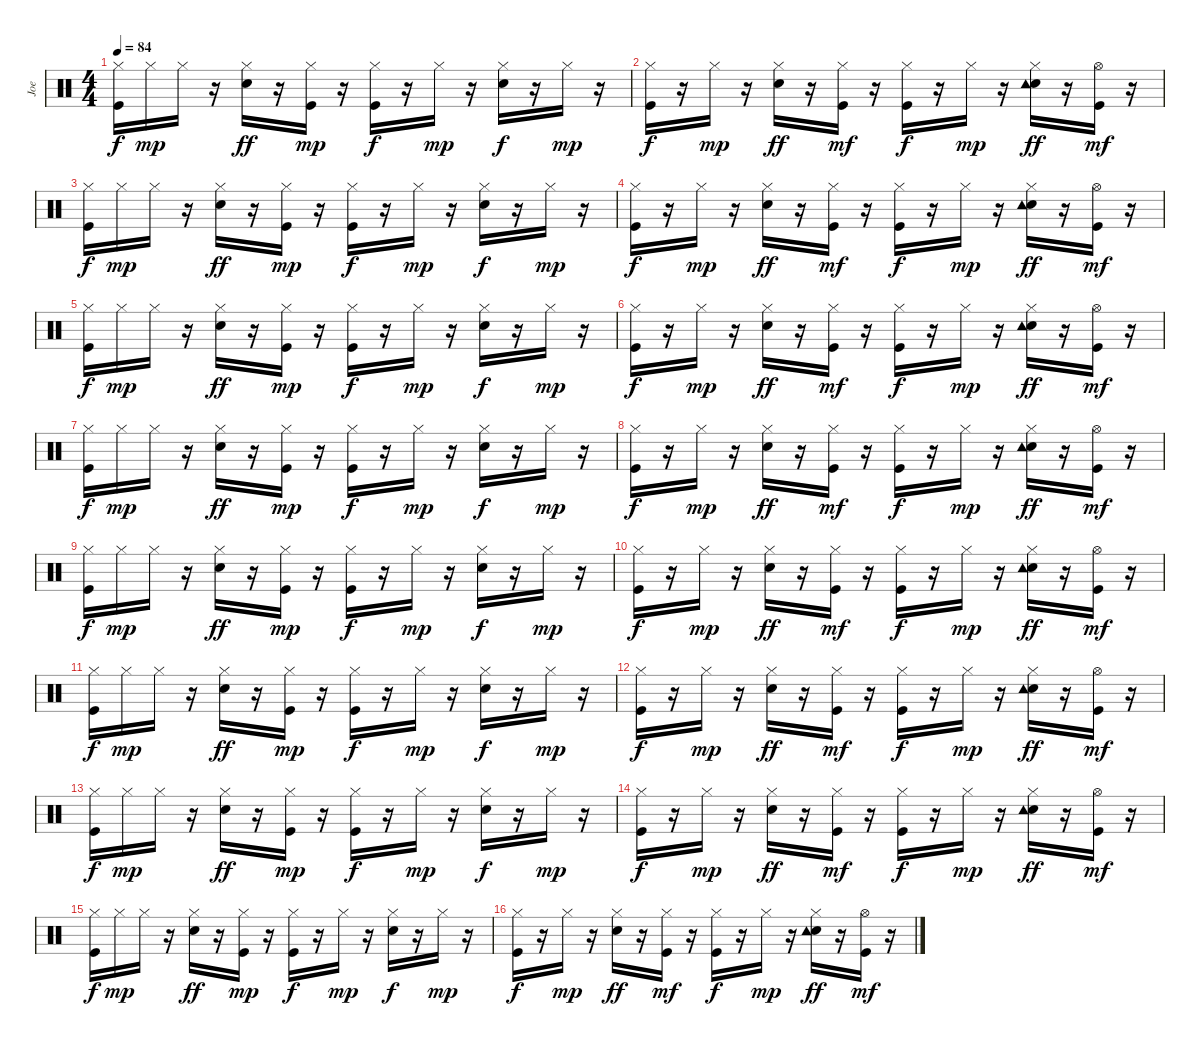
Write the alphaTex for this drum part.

\track ("Joe" "Joe") {instrument percussion}
\staff {score}
\articulation defaults
\ts (4 4)
\tempo 84
\clef neutral
\ks c
("Kick (hit)" "Hi-Hat (closed)").16{dy f} "Hi-Hat (closed)".16{dy mp} "Hi-Hat (closed)".16 r.16 ("Snare (hit) 2" "Hi-Hat (closed)").16{dy ff} r.16 ("Kick (hit)" "Hi-Hat (closed)").16{dy mp} r.16 ("Kick (hit)" "Hi-Hat (closed)").16{dy f} r.16 "Hi-Hat (closed)".16{dy mp} r.16 ("Snare (hit) 2" "Hi-Hat (closed)").16{dy f} r.16 "Hi-Hat (closed)".16{dy mp} r.16 |
("Kick (hit)" "Hi-Hat (closed)").16{dy f} r.16 "Hi-Hat (closed)".16{dy mp} r.16 ("Snare (hit) 2" "Hi-Hat (closed)").16{dy ff} r.16 ("Kick (hit)" "Hi-Hat (closed)").16{dy mf} r.16 ("Kick (hit)" "Hi-Hat (closed)").16{dy f} r.16 "Hi-Hat (closed)".16{dy mp} r.16 ("Snare (hit) 2" "Hi-Hat (closed)" "Tambourine (hit)").16{dy ff} r.16 ("Kick (hit)" "Hi-Hat (open)").16{dy mf} r.16 |
("Kick (hit)" "Hi-Hat (closed)").16{dy f} "Hi-Hat (closed)".16{dy mp} "Hi-Hat (closed)".16 r.16 ("Snare (hit) 2" "Hi-Hat (closed)").16{dy ff} r.16 ("Kick (hit)" "Hi-Hat (closed)").16{dy mp} r.16 ("Kick (hit)" "Hi-Hat (closed)").16{dy f} r.16 "Hi-Hat (closed)".16{dy mp} r.16 ("Snare (hit) 2" "Hi-Hat (closed)").16{dy f} r.16 "Hi-Hat (closed)".16{dy mp} r.16 |
("Kick (hit)" "Hi-Hat (closed)").16{dy f} r.16 "Hi-Hat (closed)".16{dy mp} r.16 ("Snare (hit) 2" "Hi-Hat (closed)").16{dy ff} r.16 ("Kick (hit)" "Hi-Hat (closed)").16{dy mf} r.16 ("Kick (hit)" "Hi-Hat (closed)").16{dy f} r.16 "Hi-Hat (closed)".16{dy mp} r.16 ("Snare (hit) 2" "Hi-Hat (closed)" "Tambourine (hit)").16{dy ff} r.16 ("Kick (hit)" "Hi-Hat (open)").16{dy mf} r.16 |
("Kick (hit)" "Hi-Hat (closed)").16{dy f} "Hi-Hat (closed)".16{dy mp} "Hi-Hat (closed)".16 r.16 ("Snare (hit) 2" "Hi-Hat (closed)").16{dy ff} r.16 ("Kick (hit)" "Hi-Hat (closed)").16{dy mp} r.16 ("Kick (hit)" "Hi-Hat (closed)").16{dy f} r.16 "Hi-Hat (closed)".16{dy mp} r.16 ("Snare (hit) 2" "Hi-Hat (closed)").16{dy f} r.16 "Hi-Hat (closed)".16{dy mp} r.16 |
("Kick (hit)" "Hi-Hat (closed)").16{dy f} r.16 "Hi-Hat (closed)".16{dy mp} r.16 ("Snare (hit) 2" "Hi-Hat (closed)").16{dy ff} r.16 ("Kick (hit)" "Hi-Hat (closed)").16{dy mf} r.16 ("Kick (hit)" "Hi-Hat (closed)").16{dy f} r.16 "Hi-Hat (closed)".16{dy mp} r.16 ("Snare (hit) 2" "Hi-Hat (closed)" "Tambourine (hit)").16{dy ff} r.16 ("Kick (hit)" "Hi-Hat (open)").16{dy mf} r.16 |
("Kick (hit)" "Hi-Hat (closed)").16{dy f} "Hi-Hat (closed)".16{dy mp} "Hi-Hat (closed)".16 r.16 ("Snare (hit) 2" "Hi-Hat (closed)").16{dy ff} r.16 ("Kick (hit)" "Hi-Hat (closed)").16{dy mp} r.16 ("Kick (hit)" "Hi-Hat (closed)").16{dy f} r.16 "Hi-Hat (closed)".16{dy mp} r.16 ("Snare (hit) 2" "Hi-Hat (closed)").16{dy f} r.16 "Hi-Hat (closed)".16{dy mp} r.16 |
("Kick (hit)" "Hi-Hat (closed)").16{dy f} r.16 "Hi-Hat (closed)".16{dy mp} r.16 ("Snare (hit) 2" "Hi-Hat (closed)").16{dy ff} r.16 ("Kick (hit)" "Hi-Hat (closed)").16{dy mf} r.16 ("Kick (hit)" "Hi-Hat (closed)").16{dy f} r.16 "Hi-Hat (closed)".16{dy mp} r.16 ("Snare (hit) 2" "Hi-Hat (closed)" "Tambourine (hit)").16{dy ff} r.16 ("Kick (hit)" "Hi-Hat (open)").16{dy mf} r.16 |
("Kick (hit)" "Hi-Hat (closed)").16{dy f} "Hi-Hat (closed)".16{dy mp} "Hi-Hat (closed)".16 r.16 ("Snare (hit) 2" "Hi-Hat (closed)").16{dy ff} r.16 ("Kick (hit)" "Hi-Hat (closed)").16{dy mp} r.16 ("Kick (hit)" "Hi-Hat (closed)").16{dy f} r.16 "Hi-Hat (closed)".16{dy mp} r.16 ("Snare (hit) 2" "Hi-Hat (closed)").16{dy f} r.16 "Hi-Hat (closed)".16{dy mp} r.16 |
("Kick (hit)" "Hi-Hat (closed)").16{dy f} r.16 "Hi-Hat (closed)".16{dy mp} r.16 ("Snare (hit) 2" "Hi-Hat (closed)").16{dy ff} r.16 ("Kick (hit)" "Hi-Hat (closed)").16{dy mf} r.16 ("Kick (hit)" "Hi-Hat (closed)").16{dy f} r.16 "Hi-Hat (closed)".16{dy mp} r.16 ("Snare (hit) 2" "Hi-Hat (closed)" "Tambourine (hit)").16{dy ff} r.16 ("Kick (hit)" "Hi-Hat (open)").16{dy mf} r.16 |
("Kick (hit)" "Hi-Hat (closed)").16{dy f} "Hi-Hat (closed)".16{dy mp} "Hi-Hat (closed)".16 r.16 ("Snare (hit) 2" "Hi-Hat (closed)").16{dy ff} r.16 ("Kick (hit)" "Hi-Hat (closed)").16{dy mp} r.16 ("Kick (hit)" "Hi-Hat (closed)").16{dy f} r.16 "Hi-Hat (closed)".16{dy mp} r.16 ("Snare (hit) 2" "Hi-Hat (closed)").16{dy f} r.16 "Hi-Hat (closed)".16{dy mp} r.16 |
("Kick (hit)" "Hi-Hat (closed)").16{dy f} r.16 "Hi-Hat (closed)".16{dy mp} r.16 ("Snare (hit) 2" "Hi-Hat (closed)").16{dy ff} r.16 ("Kick (hit)" "Hi-Hat (closed)").16{dy mf} r.16 ("Kick (hit)" "Hi-Hat (closed)").16{dy f} r.16 "Hi-Hat (closed)".16{dy mp} r.16 ("Snare (hit) 2" "Hi-Hat (closed)" "Tambourine (hit)").16{dy ff} r.16 ("Kick (hit)" "Hi-Hat (open)").16{dy mf} r.16 |
("Kick (hit)" "Hi-Hat (closed)").16{dy f} "Hi-Hat (closed)".16{dy mp} "Hi-Hat (closed)".16 r.16 ("Snare (hit) 2" "Hi-Hat (closed)").16{dy ff} r.16 ("Kick (hit)" "Hi-Hat (closed)").16{dy mp} r.16 ("Kick (hit)" "Hi-Hat (closed)").16{dy f} r.16 "Hi-Hat (closed)".16{dy mp} r.16 ("Snare (hit) 2" "Hi-Hat (closed)").16{dy f} r.16 "Hi-Hat (closed)".16{dy mp} r.16 |
("Kick (hit)" "Hi-Hat (closed)").16{dy f} r.16 "Hi-Hat (closed)".16{dy mp} r.16 ("Snare (hit) 2" "Hi-Hat (closed)").16{dy ff} r.16 ("Kick (hit)" "Hi-Hat (closed)").16{dy mf} r.16 ("Kick (hit)" "Hi-Hat (closed)").16{dy f} r.16 "Hi-Hat (closed)".16{dy mp} r.16 ("Snare (hit) 2" "Hi-Hat (closed)" "Tambourine (hit)").16{dy ff} r.16 ("Kick (hit)" "Hi-Hat (open)").16{dy mf} r.16 |
("Kick (hit)" "Hi-Hat (closed)").16{dy f} "Hi-Hat (closed)".16{dy mp} "Hi-Hat (closed)".16 r.16 ("Snare (hit) 2" "Hi-Hat (closed)").16{dy ff} r.16 ("Kick (hit)" "Hi-Hat (closed)").16{dy mp} r.16 ("Kick (hit)" "Hi-Hat (closed)").16{dy f} r.16 "Hi-Hat (closed)".16{dy mp} r.16 ("Snare (hit) 2" "Hi-Hat (closed)").16{dy f} r.16 "Hi-Hat (closed)".16{dy mp} r.16 |
("Kick (hit)" "Hi-Hat (closed)").16{dy f} r.16 "Hi-Hat (closed)".16{dy mp} r.16 ("Snare (hit) 2" "Hi-Hat (closed)").16{dy ff} r.16 ("Kick (hit)" "Hi-Hat (closed)").16{dy mf} r.16 ("Kick (hit)" "Hi-Hat (closed)").16{dy f} r.16 "Hi-Hat (closed)".16{dy mp} r.16 ("Snare (hit) 2" "Hi-Hat (closed)" "Tambourine (hit)").16{dy ff} r.16 ("Kick (hit)" "Hi-Hat (open)").16{dy mf} r.16
